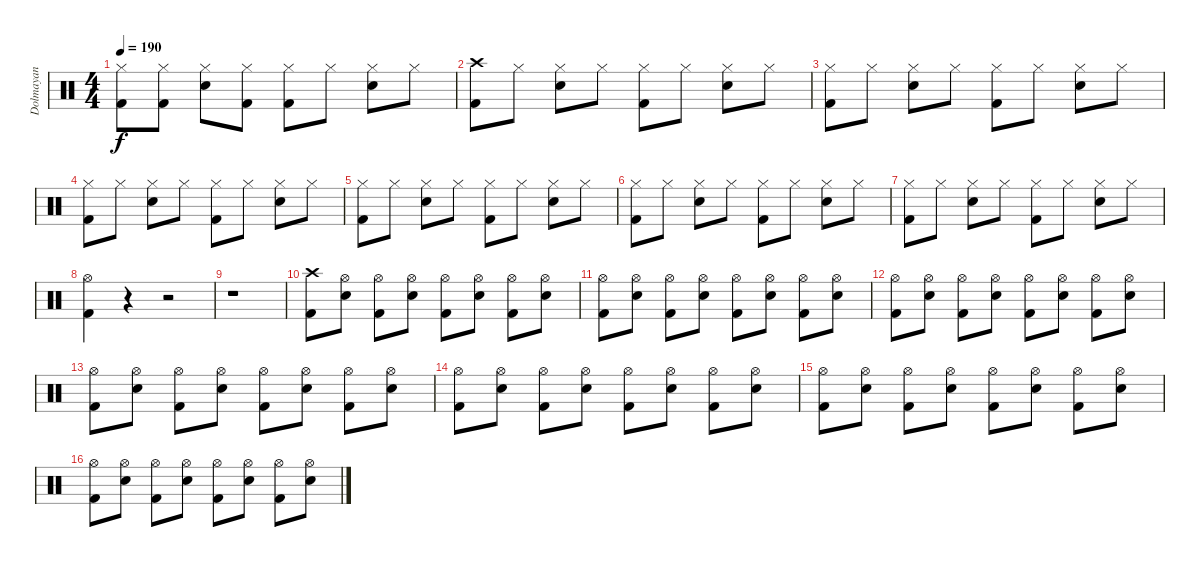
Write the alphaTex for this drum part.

\track ("Dolmayan" "Dolmayan") {instrument percussion}
\staff {score}
\articulation defaults
\ts (4 4)
\tempo 190
\clef neutral
\ks c
("Hi-Hat (closed)" "Kick (hit) 2").8{dy f} ("Hi-Hat (closed)" "Kick (hit) 2").8 ("Hi-Hat (closed)" "Electric Snare (hit)").8 ("Hi-Hat (closed)" "Kick (hit) 2").8 ("Hi-Hat (closed)" "Kick (hit) 2").8 "Hi-Hat (closed)".8 ("Hi-Hat (closed)" "Electric Snare (hit)").8 "Hi-Hat (closed)".8 |
("Crash high (hit)" "Kick (hit) 2").8 "Hi-Hat (closed)".8 ("Hi-Hat (closed)" "Electric Snare (hit)").8 "Hi-Hat (closed)".8 ("Hi-Hat (closed)" "Kick (hit) 2").8 "Hi-Hat (closed)".8 ("Hi-Hat (closed)" "Electric Snare (hit)").8 "Hi-Hat (closed)".8 |
("Hi-Hat (closed)" "Kick (hit) 2").8 "Hi-Hat (closed)".8 ("Hi-Hat (closed)" "Electric Snare (hit)").8 "Hi-Hat (closed)".8 ("Hi-Hat (closed)" "Kick (hit) 2").8 "Hi-Hat (closed)".8 ("Hi-Hat (closed)" "Electric Snare (hit)").8 "Hi-Hat (closed)".8 |
("Hi-Hat (closed)" "Kick (hit) 2").8 "Hi-Hat (closed)".8 ("Hi-Hat (closed)" "Electric Snare (hit)").8 "Hi-Hat (closed)".8 ("Hi-Hat (closed)" "Kick (hit) 2").8 "Hi-Hat (closed)".8 ("Hi-Hat (closed)" "Electric Snare (hit)").8 "Hi-Hat (closed)".8 |
("Hi-Hat (closed)" "Kick (hit) 2").8 "Hi-Hat (closed)".8 ("Hi-Hat (closed)" "Electric Snare (hit)").8 "Hi-Hat (closed)".8 ("Hi-Hat (closed)" "Kick (hit) 2").8 "Hi-Hat (closed)".8 ("Hi-Hat (closed)" "Electric Snare (hit)").8 "Hi-Hat (closed)".8 |
("Hi-Hat (closed)" "Kick (hit) 2").8 "Hi-Hat (closed)".8 ("Hi-Hat (closed)" "Electric Snare (hit)").8 "Hi-Hat (closed)".8 ("Hi-Hat (closed)" "Kick (hit) 2").8 "Hi-Hat (closed)".8 ("Hi-Hat (closed)" "Electric Snare (hit)").8 "Hi-Hat (closed)".8 |
("Hi-Hat (closed)" "Kick (hit) 2").8 "Hi-Hat (closed)".8 ("Hi-Hat (closed)" "Electric Snare (hit)").8 "Hi-Hat (closed)".8 ("Hi-Hat (closed)" "Kick (hit) 2").8 "Hi-Hat (closed)".8 ("Hi-Hat (closed)" "Electric Snare (hit)").8 "Hi-Hat (closed)".8 |
("Hi-Hat (open)" "Kick (hit) 2").4 r.4 r.2 |
r.1 |
("Crash high (hit)" "Kick (hit) 2").8 ("Hi-Hat (open)" "Electric Snare (hit)").8 ("Hi-Hat (open)" "Kick (hit) 2").8 ("Hi-Hat (open)" "Electric Snare (hit)").8 ("Hi-Hat (open)" "Kick (hit) 2").8 ("Hi-Hat (open)" "Electric Snare (hit)").8 ("Hi-Hat (open)" "Kick (hit) 2").8 ("Hi-Hat (open)" "Electric Snare (hit)").8 |
("Hi-Hat (open)" "Kick (hit) 2").8 ("Hi-Hat (open)" "Electric Snare (hit)").8 ("Hi-Hat (open)" "Kick (hit) 2").8 ("Hi-Hat (open)" "Electric Snare (hit)").8 ("Hi-Hat (open)" "Kick (hit) 2").8 ("Hi-Hat (open)" "Electric Snare (hit)").8 ("Hi-Hat (open)" "Kick (hit) 2").8 ("Hi-Hat (open)" "Electric Snare (hit)").8 |
("Hi-Hat (open)" "Kick (hit) 2").8 ("Hi-Hat (open)" "Electric Snare (hit)").8 ("Hi-Hat (open)" "Kick (hit) 2").8 ("Hi-Hat (open)" "Electric Snare (hit)").8 ("Hi-Hat (open)" "Kick (hit) 2").8 ("Hi-Hat (open)" "Electric Snare (hit)").8 ("Hi-Hat (open)" "Kick (hit) 2").8 ("Hi-Hat (open)" "Electric Snare (hit)").8 |
("Hi-Hat (open)" "Kick (hit) 2").8 ("Hi-Hat (open)" "Electric Snare (hit)").8 ("Hi-Hat (open)" "Kick (hit) 2").8 ("Hi-Hat (open)" "Electric Snare (hit)").8 ("Hi-Hat (open)" "Kick (hit) 2").8 ("Hi-Hat (open)" "Electric Snare (hit)").8 ("Hi-Hat (open)" "Kick (hit) 2").8 ("Hi-Hat (open)" "Electric Snare (hit)").8 |
("Hi-Hat (open)" "Kick (hit) 2").8 ("Hi-Hat (open)" "Electric Snare (hit)").8 ("Hi-Hat (open)" "Kick (hit) 2").8 ("Hi-Hat (open)" "Electric Snare (hit)").8 ("Hi-Hat (open)" "Kick (hit) 2").8 ("Hi-Hat (open)" "Electric Snare (hit)").8 ("Hi-Hat (open)" "Kick (hit) 2").8 ("Hi-Hat (open)" "Electric Snare (hit)").8 |
("Hi-Hat (open)" "Kick (hit) 2").8 ("Hi-Hat (open)" "Electric Snare (hit)").8 ("Hi-Hat (open)" "Kick (hit) 2").8 ("Hi-Hat (open)" "Electric Snare (hit)").8 ("Hi-Hat (open)" "Kick (hit) 2").8 ("Hi-Hat (open)" "Electric Snare (hit)").8 ("Hi-Hat (open)" "Kick (hit) 2").8 ("Hi-Hat (open)" "Electric Snare (hit)").8 |
("Hi-Hat (open)" "Kick (hit) 2").8 ("Hi-Hat (open)" "Electric Snare (hit)").8 ("Hi-Hat (open)" "Kick (hit) 2").8 ("Hi-Hat (open)" "Electric Snare (hit)").8 ("Hi-Hat (open)" "Kick (hit) 2").8 ("Hi-Hat (open)" "Electric Snare (hit)").8 ("Hi-Hat (open)" "Kick (hit) 2").8 ("Hi-Hat (open)" "Electric Snare (hit)").8
